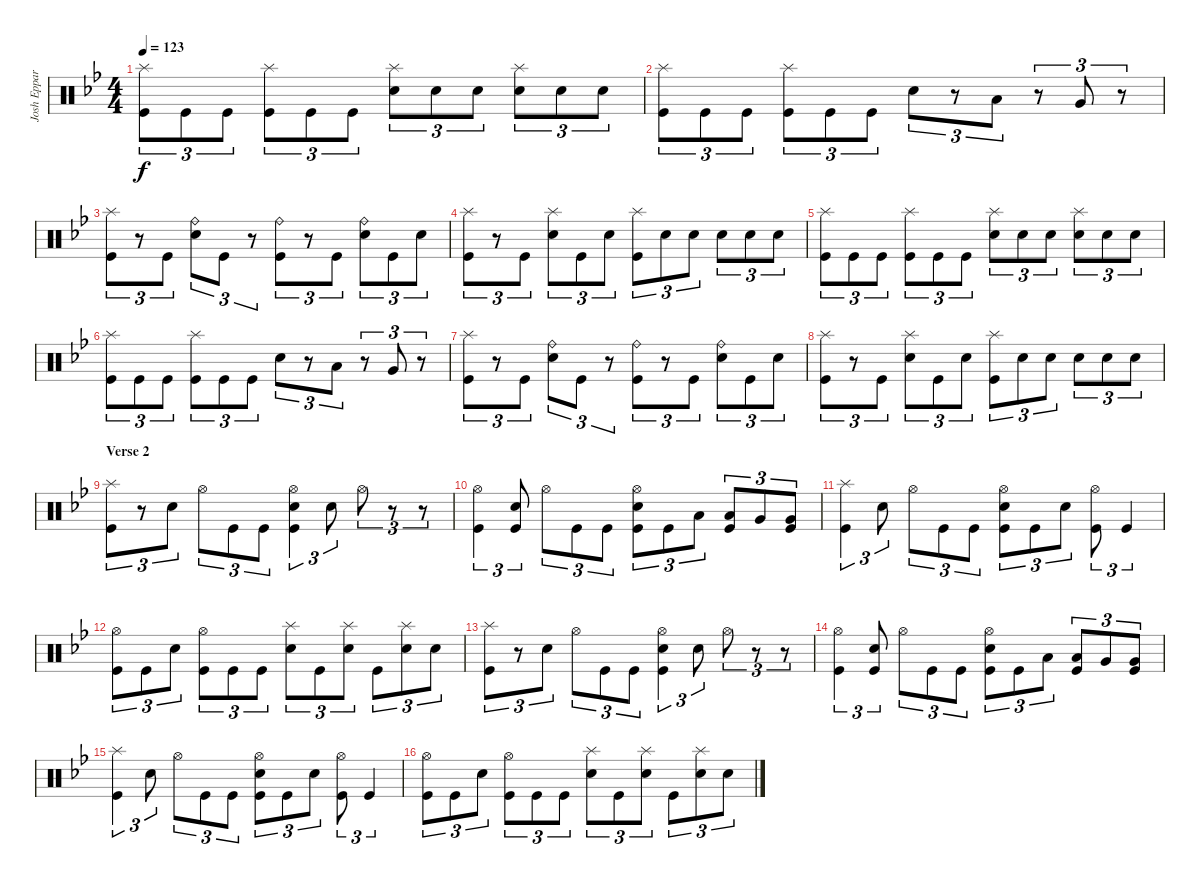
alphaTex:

\track ("Josh Eppard" "Josh Eppar") {instrument percussion}
\staff {score}
\articulation defaults
\ts (4 4)
\tempo 123
\clef neutral
\ks gminor
("Kick (hit)" "Splash (hit)").8{tu (3 2) dy f} "Kick (hit)".8{tu (3 2)} "Kick (hit)".8{tu (3 2)} ("Kick (hit)" "Splash (hit)").8{tu (3 2)} "Kick (hit)".8{tu (3 2)} "Kick (hit)".8{tu (3 2)} ("Snare (hit) 2" "Splash (hit)").8{tu (3 2)} "Snare (hit) 2".8{tu (3 2)} "Snare (hit) 2".8{tu (3 2)} ("Snare (hit) 2" "Splash (hit)").8{tu (3 2)} "Snare (hit) 2".8{tu (3 2)} "Snare (hit) 2".8{tu (3 2)} |
("Kick (hit)" "Splash (hit)").8{tu (3 2)} "Kick (hit)".8{tu (3 2)} "Kick (hit)".8{tu (3 2)} ("Kick (hit)" "Splash (hit)").8{tu (3 2)} "Kick (hit)".8{tu (3 2)} "Kick (hit)".8{tu (3 2)} "Snare (hit) 2".8{tu (3 2)} r.8{tu (3 2)} "Low Tom (hit)".8{tu (3 2)} r.8{tu (3 2)} "Very Low Tom (hit)".8{tu (3 2)} r.8{tu (3 2)} |
("Splash (hit)" "Kick (hit)").8{tu (3 2)} r.8{tu (3 2)} "Kick (hit)".8{tu (3 2)} ("Snare (hit) 2" "Ride (bell)").8{tu (3 2)} "Kick (hit)".8{tu (3 2)} r.8{tu (3 2)} ("Kick (hit)" "Ride (bell)").8{tu (3 2)} r.8{tu (3 2)} "Kick (hit)".8{tu (3 2)} ("Ride (bell)" "Snare (hit) 2").8{tu (3 2)} "Kick (hit)".8{tu (3 2)} "Snare (hit) 2".8{tu (3 2)} |
("Splash (hit)" "Kick (hit)").8{tu (3 2)} r.8{tu (3 2)} "Kick (hit)".8{tu (3 2)} ("Snare (hit) 2" "Splash (hit)").8{tu (3 2)} "Kick (hit)".8{tu (3 2)} "Snare (hit) 2".8{tu (3 2)} ("Kick (hit)" "Splash (hit)").8{tu (3 2)} "Snare (hit) 2".8{tu (3 2)} "Snare (hit) 2".8{tu (3 2)} "Snare (hit) 2".8{tu (3 2)} "Snare (hit) 2".8{tu (3 2)} "Snare (hit) 2".8{tu (3 2)} |
("Kick (hit)" "Splash (hit)").8{tu (3 2)} "Kick (hit)".8{tu (3 2)} "Kick (hit)".8{tu (3 2)} ("Kick (hit)" "Splash (hit)").8{tu (3 2)} "Kick (hit)".8{tu (3 2)} "Kick (hit)".8{tu (3 2)} ("Snare (hit) 2" "Splash (hit)").8{tu (3 2)} "Snare (hit) 2".8{tu (3 2)} "Snare (hit) 2".8{tu (3 2)} ("Snare (hit) 2" "Splash (hit)").8{tu (3 2)} "Snare (hit) 2".8{tu (3 2)} "Snare (hit) 2".8{tu (3 2)} |
("Kick (hit)" "Splash (hit)").8{tu (3 2)} "Kick (hit)".8{tu (3 2)} "Kick (hit)".8{tu (3 2)} ("Kick (hit)" "Splash (hit)").8{tu (3 2)} "Kick (hit)".8{tu (3 2)} "Kick (hit)".8{tu (3 2)} "Snare (hit) 2".8{tu (3 2)} r.8{tu (3 2)} "Low Tom (hit)".8{tu (3 2)} r.8{tu (3 2)} "Very Low Tom (hit)".8{tu (3 2)} r.8{tu (3 2)} |
("Splash (hit)" "Kick (hit)").8{tu (3 2)} r.8{tu (3 2)} "Kick (hit)".8{tu (3 2)} ("Snare (hit) 2" "Ride (bell)").8{tu (3 2)} "Kick (hit)".8{tu (3 2)} r.8{tu (3 2)} ("Kick (hit)" "Ride (bell)").8{tu (3 2)} r.8{tu (3 2)} "Kick (hit)".8{tu (3 2)} ("Ride (bell)" "Snare (hit) 2").8{tu (3 2)} "Kick (hit)".8{tu (3 2)} "Snare (hit) 2".8{tu (3 2)} |
("Splash (hit)" "Kick (hit)").8{tu (3 2)} r.8{tu (3 2)} "Kick (hit)".8{tu (3 2)} ("Snare (hit) 2" "Splash (hit)").8{tu (3 2)} "Kick (hit)".8{tu (3 2)} "Snare (hit) 2".8{tu (3 2)} ("Kick (hit)" "Splash (hit)").8{tu (3 2)} "Snare (hit) 2".8{tu (3 2)} "Snare (hit) 2".8{tu (3 2)} "Snare (hit) 2".8{tu (3 2)} "Snare (hit) 2".8{tu (3 2)} "Snare (hit) 2".8{tu (3 2)} |
\section ("" "Verse 2")
("Splash (hit)" "Kick (hit)").8{tu (3 2)} r.8{tu (3 2)} "Snare (hit) 2".8{tu (3 2)} "Hi-Hat (open)".8{tu (3 2)} "Kick (hit)".8{tu (3 2)} "Kick (hit)".8{tu (3 2)} ("Kick (hit)" "Snare (hit) 2" "Hi-Hat (open)").4{tu (3 2)} "Snare (hit) 2".8{tu (3 2)} "Hi-Hat (open)".8{tu (3 2)} r.8{tu (3 2)} r.8{tu (3 2)} |
("Kick (hit)" "Hi-Hat (open)").4{tu (3 2)} ("Kick (hit)" "Snare (hit) 2").8{tu (3 2)} "Hi-Hat (open)".8{tu (3 2)} "Kick (hit)".8{tu (3 2)} "Kick (hit)".8{tu (3 2)} ("Kick (hit)" "Snare (hit) 2" "Hi-Hat (open)").8{tu (3 2)} "Kick (hit)".8{tu (3 2)} "Low Tom (hit)".8{tu (3 2)} ("Kick (hit)" "Low Tom (hit)").8{tu (3 2)} "Very Low Tom (hit)".8{tu (3 2)} ("Kick (hit)" "Very Low Tom (hit)").8{tu (3 2)} |
("Kick (hit)" "Splash (hit)").4{tu (3 2)} "Snare (hit) 2".8{tu (3 2)} "Hi-Hat (open)".8{tu (3 2)} "Kick (hit)".8{tu (3 2)} "Kick (hit)".8{tu (3 2)} ("Kick (hit)" "Snare (hit) 2" "Hi-Hat (open)").8{tu (3 2)} "Kick (hit)".8{tu (3 2)} "Snare (hit) 2".8{tu (3 2)} ("Kick (hit)" "Hi-Hat (open)").8{tu (3 2)} "Kick (hit)".4{tu (3 2)} |
("Kick (hit)" "Hi-Hat (open)").8{tu (3 2)} "Kick (hit)".8{tu (3 2)} "Snare (hit) 2".8{tu (3 2)} ("Hi-Hat (open)" "Kick (hit)").8{tu (3 2)} "Kick (hit)".8{tu (3 2)} "Kick (hit)".8{tu (3 2)} ("Snare (hit) 2" "Splash (hit)").8{tu (3 2)} "Kick (hit)".8{tu (3 2)} ("Snare (hit) 2" "Splash (hit)").8{tu (3 2)} "Kick (hit)".8{tu (3 2)} ("Snare (hit) 2" "Splash (hit)").8{tu (3 2)} "Snare (hit) 2".8{tu (3 2)} |
("Splash (hit)" "Kick (hit)").8{tu (3 2)} r.8{tu (3 2)} "Snare (hit) 2".8{tu (3 2)} "Hi-Hat (open)".8{tu (3 2)} "Kick (hit)".8{tu (3 2)} "Kick (hit)".8{tu (3 2)} ("Kick (hit)" "Snare (hit) 2" "Hi-Hat (open)").4{tu (3 2)} "Snare (hit) 2".8{tu (3 2)} "Hi-Hat (open)".8{tu (3 2)} r.8{tu (3 2)} r.8{tu (3 2)} |
("Kick (hit)" "Hi-Hat (open)").4{tu (3 2)} ("Kick (hit)" "Snare (hit) 2").8{tu (3 2)} "Hi-Hat (open)".8{tu (3 2)} "Kick (hit)".8{tu (3 2)} "Kick (hit)".8{tu (3 2)} ("Kick (hit)" "Snare (hit) 2" "Hi-Hat (open)").8{tu (3 2)} "Kick (hit)".8{tu (3 2)} "Low Tom (hit)".8{tu (3 2)} ("Kick (hit)" "Low Tom (hit)").8{tu (3 2)} "Very Low Tom (hit)".8{tu (3 2)} ("Kick (hit)" "Very Low Tom (hit)").8{tu (3 2)} |
("Kick (hit)" "Splash (hit)").4{tu (3 2)} "Snare (hit) 2".8{tu (3 2)} "Hi-Hat (open)".8{tu (3 2)} "Kick (hit)".8{tu (3 2)} "Kick (hit)".8{tu (3 2)} ("Kick (hit)" "Snare (hit) 2" "Hi-Hat (open)").8{tu (3 2)} "Kick (hit)".8{tu (3 2)} "Snare (hit) 2".8{tu (3 2)} ("Kick (hit)" "Hi-Hat (open)").8{tu (3 2)} "Kick (hit)".4{tu (3 2)} |
("Kick (hit)" "Hi-Hat (open)").8{tu (3 2)} "Kick (hit)".8{tu (3 2)} "Snare (hit) 2".8{tu (3 2)} ("Hi-Hat (open)" "Kick (hit)").8{tu (3 2)} "Kick (hit)".8{tu (3 2)} "Kick (hit)".8{tu (3 2)} ("Snare (hit) 2" "Splash (hit)").8{tu (3 2)} "Kick (hit)".8{tu (3 2)} ("Snare (hit) 2" "Splash (hit)").8{tu (3 2)} "Kick (hit)".8{tu (3 2)} ("Snare (hit) 2" "Splash (hit)").8{tu (3 2)} "Snare (hit) 2".8{tu (3 2)}
